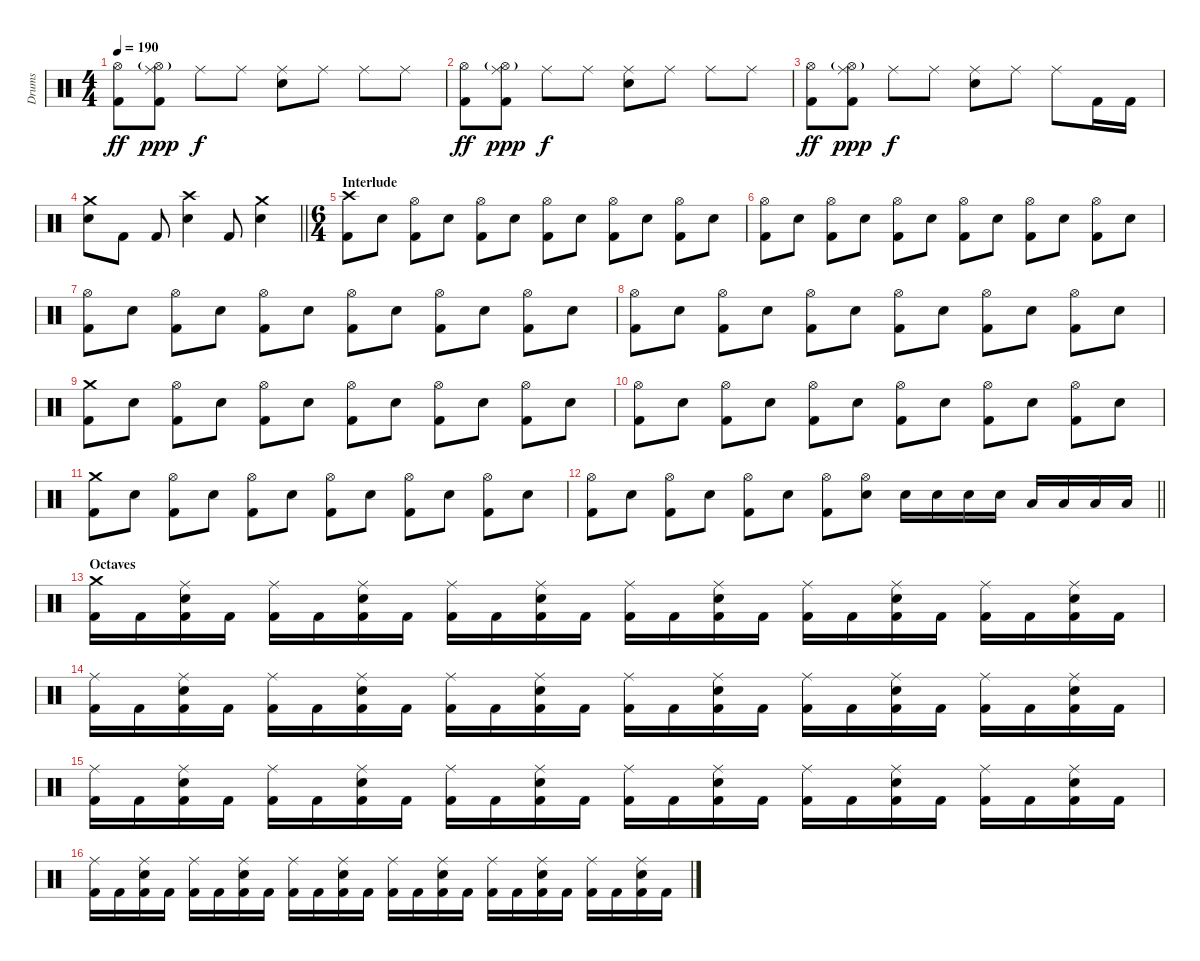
\track ("Drums" "Drums") {instrument percussion}
\staff {score}
\articulation defaults
\ts (4 4)
\tempo 190
\clef neutral
\ks c
("Hi-Hat (open)" "Kick (hit) 2").8{dy ff} ("Hi-Hat (open)"{g} "Ride (middle)" "Kick (hit) 2").8{dy ppp} "Ride (middle)".8{dy f} "Ride (middle)".8 ("Ride (middle)" "Electric Snare (hit)").8 "Ride (middle)".8 "Ride (middle)".8 "Ride (middle)".8 |
("Hi-Hat (open)" "Kick (hit) 2").8{dy ff} ("Hi-Hat (open)"{g} "Ride (middle)" "Kick (hit) 2").8{dy ppp} "Ride (middle)".8{dy f} "Ride (middle)".8 ("Ride (middle)" "Electric Snare (hit)").8 "Ride (middle)".8 "Ride (middle)".8 "Ride (middle)".8 |
("Hi-Hat (open)" "Kick (hit) 2").8{dy ff} ("Hi-Hat (open)"{g} "Ride (middle)" "Kick (hit) 2").8{dy ppp} "Ride (middle)".8{dy f} "Ride (middle)".8 ("Ride (middle)" "Electric Snare (hit)").8 "Ride (middle)".8 "Ride (middle)".8 "Kick (hit) 2".16 "Kick (hit) 2".16 |
\barLineRight lightlight
("Crash medium (hit)" "Electric Snare (hit)").8 "Kick (hit) 2".8 "Kick (hit) 2".8 ("Crash high (hit)" "Electric Snare (hit)").4 "Kick (hit) 2".8 ("Crash medium (hit)" "Electric Snare (hit)").4 |
\ts (6 4)
\section ("" "Interlude")
("Crash high (hit)" "Kick (hit) 2").8 "Electric Snare (hit)".8 ("Hi-Hat (open)" "Kick (hit) 2").8 "Electric Snare (hit)".8 ("Hi-Hat (open)" "Kick (hit) 2").8 "Electric Snare (hit)".8 ("Hi-Hat (open)" "Kick (hit) 2").8 "Electric Snare (hit)".8 ("Hi-Hat (open)" "Kick (hit) 2").8 "Electric Snare (hit)".8 ("Hi-Hat (open)" "Kick (hit) 2").8 "Electric Snare (hit)".8 |
("Hi-Hat (open)" "Kick (hit) 2").8 "Electric Snare (hit)".8 ("Hi-Hat (open)" "Kick (hit) 2").8 "Electric Snare (hit)".8 ("Hi-Hat (open)" "Kick (hit) 2").8 "Electric Snare (hit)".8 ("Hi-Hat (open)" "Kick (hit) 2").8 "Electric Snare (hit)".8 ("Hi-Hat (open)" "Kick (hit) 2").8 "Electric Snare (hit)".8 ("Hi-Hat (open)" "Kick (hit) 2").8 "Electric Snare (hit)".8 |
("Hi-Hat (open)" "Kick (hit) 2").8 "Electric Snare (hit)".8 ("Hi-Hat (open)" "Kick (hit) 2").8 "Electric Snare (hit)".8 ("Hi-Hat (open)" "Kick (hit) 2").8 "Electric Snare (hit)".8 ("Hi-Hat (open)" "Kick (hit) 2").8 "Electric Snare (hit)".8 ("Hi-Hat (open)" "Kick (hit) 2").8 "Electric Snare (hit)".8 ("Hi-Hat (open)" "Kick (hit) 2").8 "Electric Snare (hit)".8 |
("Hi-Hat (open)" "Kick (hit) 2").8 "Electric Snare (hit)".8 ("Hi-Hat (open)" "Kick (hit) 2").8 "Electric Snare (hit)".8 ("Hi-Hat (open)" "Kick (hit) 2").8 "Electric Snare (hit)".8 ("Hi-Hat (open)" "Kick (hit) 2").8 "Electric Snare (hit)".8 ("Hi-Hat (open)" "Kick (hit) 2").8 "Electric Snare (hit)".8 ("Hi-Hat (open)" "Kick (hit) 2").8 "Electric Snare (hit)".8 |
("Crash medium (hit)" "Kick (hit) 2").8 "Electric Snare (hit)".8 ("Hi-Hat (open)" "Kick (hit) 2").8 "Electric Snare (hit)".8 ("Hi-Hat (open)" "Kick (hit) 2").8 "Electric Snare (hit)".8 ("Hi-Hat (open)" "Kick (hit) 2").8 "Electric Snare (hit)".8 ("Hi-Hat (open)" "Kick (hit) 2").8 "Electric Snare (hit)".8 ("Hi-Hat (open)" "Kick (hit) 2").8 "Electric Snare (hit)".8 |
("Hi-Hat (open)" "Kick (hit) 2").8 "Electric Snare (hit)".8 ("Hi-Hat (open)" "Kick (hit) 2").8 "Electric Snare (hit)".8 ("Hi-Hat (open)" "Kick (hit) 2").8 "Electric Snare (hit)".8 ("Hi-Hat (open)" "Kick (hit) 2").8 "Electric Snare (hit)".8 ("Hi-Hat (open)" "Kick (hit) 2").8 "Electric Snare (hit)".8 ("Hi-Hat (open)" "Kick (hit) 2").8 "Electric Snare (hit)".8 |
("Crash medium (hit)" "Kick (hit) 2").8 "Electric Snare (hit)".8 ("Hi-Hat (open)" "Kick (hit) 2").8 "Electric Snare (hit)".8 ("Hi-Hat (open)" "Kick (hit) 2").8 "Electric Snare (hit)".8 ("Hi-Hat (open)" "Kick (hit) 2").8 "Electric Snare (hit)".8 ("Hi-Hat (open)" "Kick (hit) 2").8 "Electric Snare (hit)".8 ("Hi-Hat (open)" "Kick (hit) 2").8 "Electric Snare (hit)".8 |
\barLineRight lightlight
("Hi-Hat (open)" "Kick (hit) 2").8 "Electric Snare (hit)".8 ("Hi-Hat (open)" "Kick (hit) 2").8 "Electric Snare (hit)".8 ("Hi-Hat (open)" "Kick (hit) 2").8 "Electric Snare (hit)".8 ("Hi-Hat (open)" "Kick (hit) 2").8 ("Hi-Hat (open)" "Electric Snare (hit)").8 "Electric Snare (hit)".16 "Electric Snare (hit)".16 "Electric Snare (hit)".16 "Electric Snare (hit)".16 "Low Tom (hit)".16 "Low Tom (hit)".16 "Low Tom (hit)".16 "Low Tom (hit)".16 |
\section ("" "Octaves")
("Crash medium (hit)" "Kick (hit) 2").16 "Kick (hit) 2".16 ("Ride (middle)" "Electric Snare (hit)" "Kick (hit) 2").16 "Kick (hit) 2".16 ("Ride (middle)" "Kick (hit) 2").16 "Kick (hit) 2".16 ("Ride (middle)" "Electric Snare (hit)" "Kick (hit) 2").16 "Kick (hit) 2".16 ("Ride (middle)" "Kick (hit) 2").16 "Kick (hit) 2".16 ("Ride (middle)" "Electric Snare (hit)" "Kick (hit) 2").16 "Kick (hit) 2".16 ("Ride (middle)" "Kick (hit) 2").16 "Kick (hit) 2".16 ("Ride (middle)" "Electric Snare (hit)" "Kick (hit) 2").16 "Kick (hit) 2".16 ("Ride (middle)" "Kick (hit) 2").16 "Kick (hit) 2".16 ("Ride (middle)" "Electric Snare (hit)" "Kick (hit) 2").16 "Kick (hit) 2".16 ("Ride (middle)" "Kick (hit) 2").16 "Kick (hit) 2".16 ("Ride (middle)" "Electric Snare (hit)" "Kick (hit) 2").16 "Kick (hit) 2".16 |
("Ride (middle)" "Kick (hit) 2").16 "Kick (hit) 2".16 ("Ride (middle)" "Electric Snare (hit)" "Kick (hit) 2").16 "Kick (hit) 2".16 ("Ride (middle)" "Kick (hit) 2").16 "Kick (hit) 2".16 ("Ride (middle)" "Electric Snare (hit)" "Kick (hit) 2").16 "Kick (hit) 2".16 ("Ride (middle)" "Kick (hit) 2").16 "Kick (hit) 2".16 ("Ride (middle)" "Electric Snare (hit)" "Kick (hit) 2").16 "Kick (hit) 2".16 ("Ride (middle)" "Kick (hit) 2").16 "Kick (hit) 2".16 ("Ride (middle)" "Electric Snare (hit)" "Kick (hit) 2").16 "Kick (hit) 2".16 ("Ride (middle)" "Kick (hit) 2").16 "Kick (hit) 2".16 ("Ride (middle)" "Electric Snare (hit)" "Kick (hit) 2").16 "Kick (hit) 2".16 ("Ride (middle)" "Kick (hit) 2").16 "Kick (hit) 2".16 ("Ride (middle)" "Electric Snare (hit)" "Kick (hit) 2").16 "Kick (hit) 2".16 |
("Ride (middle)" "Kick (hit) 2").16 "Kick (hit) 2".16 ("Ride (middle)" "Electric Snare (hit)" "Kick (hit) 2").16 "Kick (hit) 2".16 ("Ride (middle)" "Kick (hit) 2").16 "Kick (hit) 2".16 ("Ride (middle)" "Electric Snare (hit)" "Kick (hit) 2").16 "Kick (hit) 2".16 ("Ride (middle)" "Kick (hit) 2").16 "Kick (hit) 2".16 ("Ride (middle)" "Electric Snare (hit)" "Kick (hit) 2").16 "Kick (hit) 2".16 ("Ride (middle)" "Kick (hit) 2").16 "Kick (hit) 2".16 ("Ride (middle)" "Electric Snare (hit)" "Kick (hit) 2").16 "Kick (hit) 2".16 ("Ride (middle)" "Kick (hit) 2").16 "Kick (hit) 2".16 ("Ride (middle)" "Electric Snare (hit)" "Kick (hit) 2").16 "Kick (hit) 2".16 ("Ride (middle)" "Kick (hit) 2").16 "Kick (hit) 2".16 ("Ride (middle)" "Electric Snare (hit)" "Kick (hit) 2").16 "Kick (hit) 2".16 |
("Ride (middle)" "Kick (hit) 2").16 "Kick (hit) 2".16 ("Ride (middle)" "Electric Snare (hit)" "Kick (hit) 2").16 "Kick (hit) 2".16 ("Ride (middle)" "Kick (hit) 2").16 "Kick (hit) 2".16 ("Ride (middle)" "Electric Snare (hit)" "Kick (hit) 2").16 "Kick (hit) 2".16 ("Ride (middle)" "Kick (hit) 2").16 "Kick (hit) 2".16 ("Ride (middle)" "Electric Snare (hit)" "Kick (hit) 2").16 "Kick (hit) 2".16 ("Ride (middle)" "Kick (hit) 2").16 "Kick (hit) 2".16 ("Ride (middle)" "Electric Snare (hit)" "Kick (hit) 2").16 "Kick (hit) 2".16 ("Ride (middle)" "Kick (hit) 2").16 "Kick (hit) 2".16 ("Ride (middle)" "Electric Snare (hit)" "Kick (hit) 2").16 "Kick (hit) 2".16 ("Ride (middle)" "Kick (hit) 2").16 "Kick (hit) 2".16 ("Ride (middle)" "Electric Snare (hit)" "Kick (hit) 2").16 "Kick (hit) 2".16
